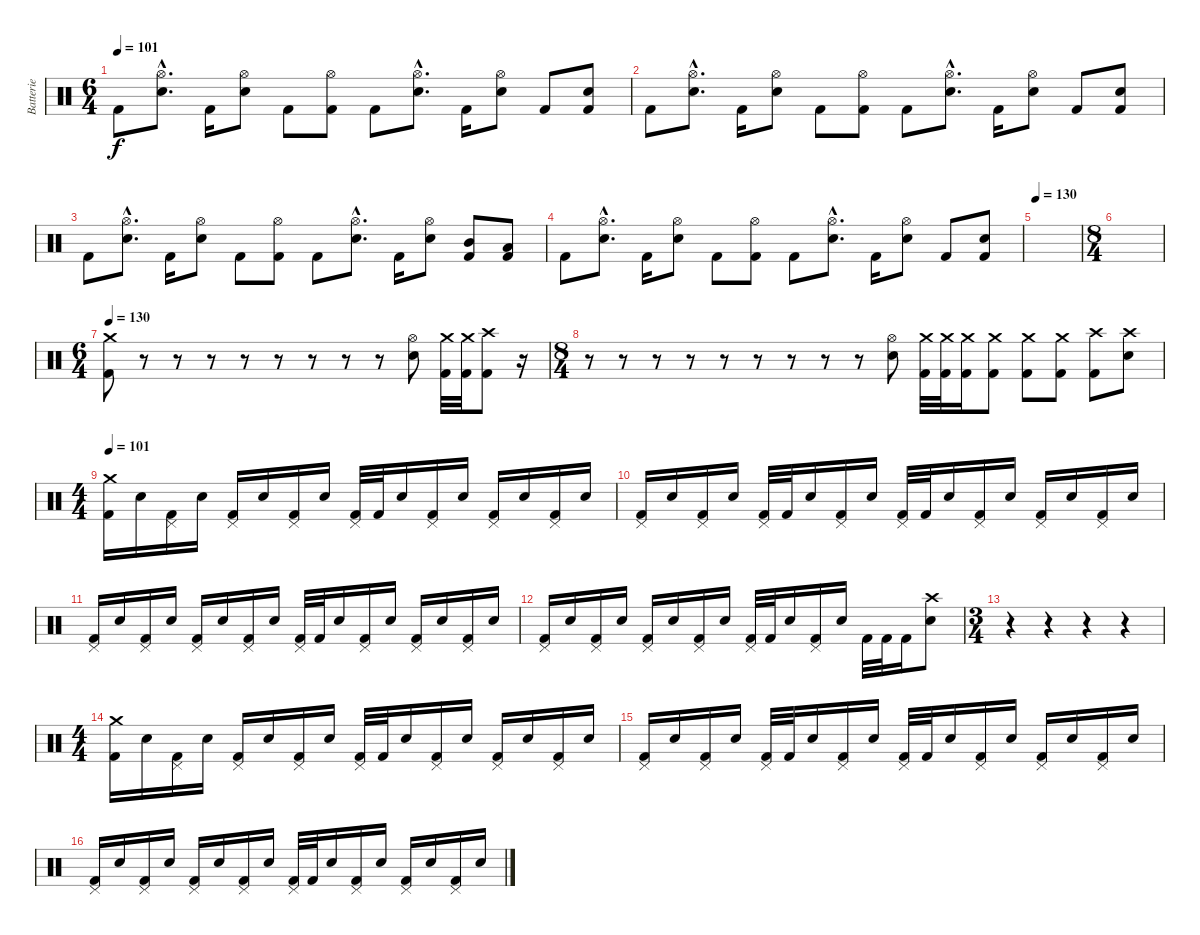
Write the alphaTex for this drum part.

\track ("Batterie" "Batterie") {instrument percussion}
\staff {score}
\articulation defaults
\ts (6 4)
\tempo 101
\clef neutral
\ks c "Kick (hit) 2".8{dy f}
("Hi-Hat (open)"{hac} "Electric Snare (hit)"{hac}).8{d} "Kick (hit) 2".16 ("Hi-Hat (open)" "Electric Snare (hit)").8 "Kick (hit) 2".8 ("Hi-Hat (open)" "Kick (hit) 2").8 "Kick (hit) 2".8 ("Hi-Hat (open)"{hac} "Electric Snare (hit)"{hac}).8{d} "Kick (hit) 2".16 ("Hi-Hat (open)" "Electric Snare (hit)").8 "Kick (hit) 2".8 ("Electric Snare (hit)" "Kick (hit) 2").8 |
"Kick (hit) 2".8 ("Hi-Hat (open)"{hac} "Electric Snare (hit)"{hac}).8{d} "Kick (hit) 2".16 ("Hi-Hat (open)" "Electric Snare (hit)").8 "Kick (hit) 2".8 ("Hi-Hat (open)" "Kick (hit) 2").8 "Kick (hit) 2".8 ("Hi-Hat (open)"{hac} "Electric Snare (hit)"{hac}).8{d} "Kick (hit) 2".16 ("Hi-Hat (open)" "Electric Snare (hit)").8 "Kick (hit) 2".8 ("Electric Snare (hit)" "Kick (hit) 2").8 |
"Kick (hit) 2".8 ("Hi-Hat (open)"{hac} "Electric Snare (hit)"{hac}).8{d} "Kick (hit) 2".16 ("Hi-Hat (open)" "Electric Snare (hit)").8 "Kick (hit) 2".8 ("Hi-Hat (open)" "Kick (hit) 2").8 "Kick (hit) 2".8 ("Hi-Hat (open)"{hac} "Electric Snare (hit)"{hac}).8{d} "Kick (hit) 2".16 ("Hi-Hat (open)" "Electric Snare (hit)").8 ("Mid Tom (hit)" "Kick (hit) 2").8 ("Low Tom (hit)" "Kick (hit) 2").8 |
"Kick (hit) 2".8 ("Hi-Hat (open)"{hac} "Electric Snare (hit)"{hac}).8{d} "Kick (hit) 2".16 ("Hi-Hat (open)" "Electric Snare (hit)").8 "Kick (hit) 2".8 ("Hi-Hat (open)" "Kick (hit) 2").8 "Kick (hit) 2".8 ("Hi-Hat (open)"{hac} "Electric Snare (hit)"{hac}).8{d} "Kick (hit) 2".16 ("Hi-Hat (open)" "Electric Snare (hit)").8 "Kick (hit) 2".8 ("Electric Snare (hit)" "Kick (hit) 2").8 |
\tempo 130
|
\ts (8 4)
|
\ts (6 4)
\tempo 130
("Crash medium (hit)" "Kick (hit) 2").8 r.8 r.8 r.8 r.8 r.8 r.8 r.8 r.8 ("Hi-Hat (open)" "Electric Snare (hit)").8 ("Crash medium (hit)" "Kick (hit) 2").32 ("Crash medium (hit)" "Kick (hit) 2").32 ("Crash high (hit)" "Kick (hit) 2").8 r.16 |
\ts (8 4)
r.8 r.8 r.8 r.8 r.8 r.8 r.8 r.8 r.8 ("Hi-Hat (open)" "Electric Snare (hit)").8 ("Crash medium (hit)" "Kick (hit) 2").32 ("Crash medium (hit)" "Kick (hit) 2").32 ("Crash medium (hit)" "Kick (hit) 2").16 ("Crash medium (hit)" "Kick (hit) 2").8 ("Crash medium (hit)" "Kick (hit) 2").8 ("Crash medium (hit)" "Kick (hit) 2").8 ("Crash high (hit)" "Kick (hit) 2").8 ("Crash high (hit)" "Electric Snare (hit)").8 |
\ts (4 4)
\tempo 101
("Crash medium (hit)" "Kick (hit) 2").16 "Electric Snare (hit)".16 ("Pedal Hi-Hat (hit)" "Kick (hit) 2").16 "Electric Snare (hit)".16 ("Pedal Hi-Hat (hit)" "Kick (hit) 2").16 "Electric Snare (hit)".16 ("Pedal Hi-Hat (hit)" "Kick (hit) 2").16 "Electric Snare (hit)".16 ("Pedal Hi-Hat (hit)" "Kick (hit) 2").32 "Kick (hit) 2".32 "Electric Snare (hit)".16 ("Pedal Hi-Hat (hit)" "Kick (hit) 2").16 "Electric Snare (hit)".16 ("Pedal Hi-Hat (hit)" "Kick (hit) 2").16 "Electric Snare (hit)".16 ("Pedal Hi-Hat (hit)" "Kick (hit) 2").16 "Electric Snare (hit)".16 |
("Pedal Hi-Hat (hit)" "Kick (hit) 2").16 "Electric Snare (hit)".16 ("Pedal Hi-Hat (hit)" "Kick (hit) 2").16 "Electric Snare (hit)".16 ("Pedal Hi-Hat (hit)" "Kick (hit) 2").32 "Kick (hit) 2".32 "Electric Snare (hit)".16 ("Pedal Hi-Hat (hit)" "Kick (hit) 2").16 "Electric Snare (hit)".16 ("Pedal Hi-Hat (hit)" "Kick (hit) 2").32 "Kick (hit) 2".32 "Electric Snare (hit)".16 ("Pedal Hi-Hat (hit)" "Kick (hit) 2").16 "Electric Snare (hit)".16 ("Pedal Hi-Hat (hit)" "Kick (hit) 2").16 "Electric Snare (hit)".16 ("Pedal Hi-Hat (hit)" "Kick (hit) 2").16 "Electric Snare (hit)".16 |
("Pedal Hi-Hat (hit)" "Kick (hit) 2").16 "Electric Snare (hit)".16 ("Pedal Hi-Hat (hit)" "Kick (hit) 2").16 "Electric Snare (hit)".16 ("Pedal Hi-Hat (hit)" "Kick (hit) 2").16 "Electric Snare (hit)".16 ("Pedal Hi-Hat (hit)" "Kick (hit) 2").16 "Electric Snare (hit)".16 ("Pedal Hi-Hat (hit)" "Kick (hit) 2").32 "Kick (hit) 2".32 "Electric Snare (hit)".16 ("Pedal Hi-Hat (hit)" "Kick (hit) 2").16 "Electric Snare (hit)".16 ("Pedal Hi-Hat (hit)" "Kick (hit) 2").16 "Electric Snare (hit)".16 ("Pedal Hi-Hat (hit)" "Kick (hit) 2").16 "Electric Snare (hit)".16 |
("Pedal Hi-Hat (hit)" "Kick (hit) 2").16 "Electric Snare (hit)".16 ("Pedal Hi-Hat (hit)" "Kick (hit) 2").16 "Electric Snare (hit)".16 ("Pedal Hi-Hat (hit)" "Kick (hit) 2").16 "Electric Snare (hit)".16 ("Pedal Hi-Hat (hit)" "Kick (hit) 2").16 "Electric Snare (hit)".16 ("Pedal Hi-Hat (hit)" "Kick (hit) 2").32 "Kick (hit) 2".32 "Electric Snare (hit)".16 ("Pedal Hi-Hat (hit)" "Kick (hit) 2").16 "Electric Snare (hit)".16 "Kick (hit) 2".32 "Kick (hit) 2".32 "Kick (hit) 2".16 ("Crash high (hit)" "Electric Snare (hit)").8 |
\ts (3 4)
r.4 r.4 r.4 r.4 |
\ts (4 4)
("Crash medium (hit)" "Kick (hit) 2").16 "Electric Snare (hit)".16 ("Pedal Hi-Hat (hit)" "Kick (hit) 2").16 "Electric Snare (hit)".16 ("Pedal Hi-Hat (hit)" "Kick (hit) 2").16 "Electric Snare (hit)".16 ("Pedal Hi-Hat (hit)" "Kick (hit) 2").16 "Electric Snare (hit)".16 ("Pedal Hi-Hat (hit)" "Kick (hit) 2").32 "Kick (hit) 2".32 "Electric Snare (hit)".16 ("Pedal Hi-Hat (hit)" "Kick (hit) 2").16 "Electric Snare (hit)".16 ("Pedal Hi-Hat (hit)" "Kick (hit) 2").16 "Electric Snare (hit)".16 ("Pedal Hi-Hat (hit)" "Kick (hit) 2").16 "Electric Snare (hit)".16 |
("Pedal Hi-Hat (hit)" "Kick (hit) 2").16 "Electric Snare (hit)".16 ("Pedal Hi-Hat (hit)" "Kick (hit) 2").16 "Electric Snare (hit)".16 ("Pedal Hi-Hat (hit)" "Kick (hit) 2").32 "Kick (hit) 2".32 "Electric Snare (hit)".16 ("Pedal Hi-Hat (hit)" "Kick (hit) 2").16 "Electric Snare (hit)".16 ("Pedal Hi-Hat (hit)" "Kick (hit) 2").32 "Kick (hit) 2".32 "Electric Snare (hit)".16 ("Pedal Hi-Hat (hit)" "Kick (hit) 2").16 "Electric Snare (hit)".16 ("Pedal Hi-Hat (hit)" "Kick (hit) 2").16 "Electric Snare (hit)".16 ("Pedal Hi-Hat (hit)" "Kick (hit) 2").16 "Electric Snare (hit)".16 |
("Pedal Hi-Hat (hit)" "Kick (hit) 2").16 "Electric Snare (hit)".16 ("Pedal Hi-Hat (hit)" "Kick (hit) 2").16 "Electric Snare (hit)".16 ("Pedal Hi-Hat (hit)" "Kick (hit) 2").16 "Electric Snare (hit)".16 ("Pedal Hi-Hat (hit)" "Kick (hit) 2").16 "Electric Snare (hit)".16 ("Pedal Hi-Hat (hit)" "Kick (hit) 2").32 "Kick (hit) 2".32 "Electric Snare (hit)".16 ("Pedal Hi-Hat (hit)" "Kick (hit) 2").16 "Electric Snare (hit)".16 ("Pedal Hi-Hat (hit)" "Kick (hit) 2").16 "Electric Snare (hit)".16 ("Pedal Hi-Hat (hit)" "Kick (hit) 2").16 "Electric Snare (hit)".16
